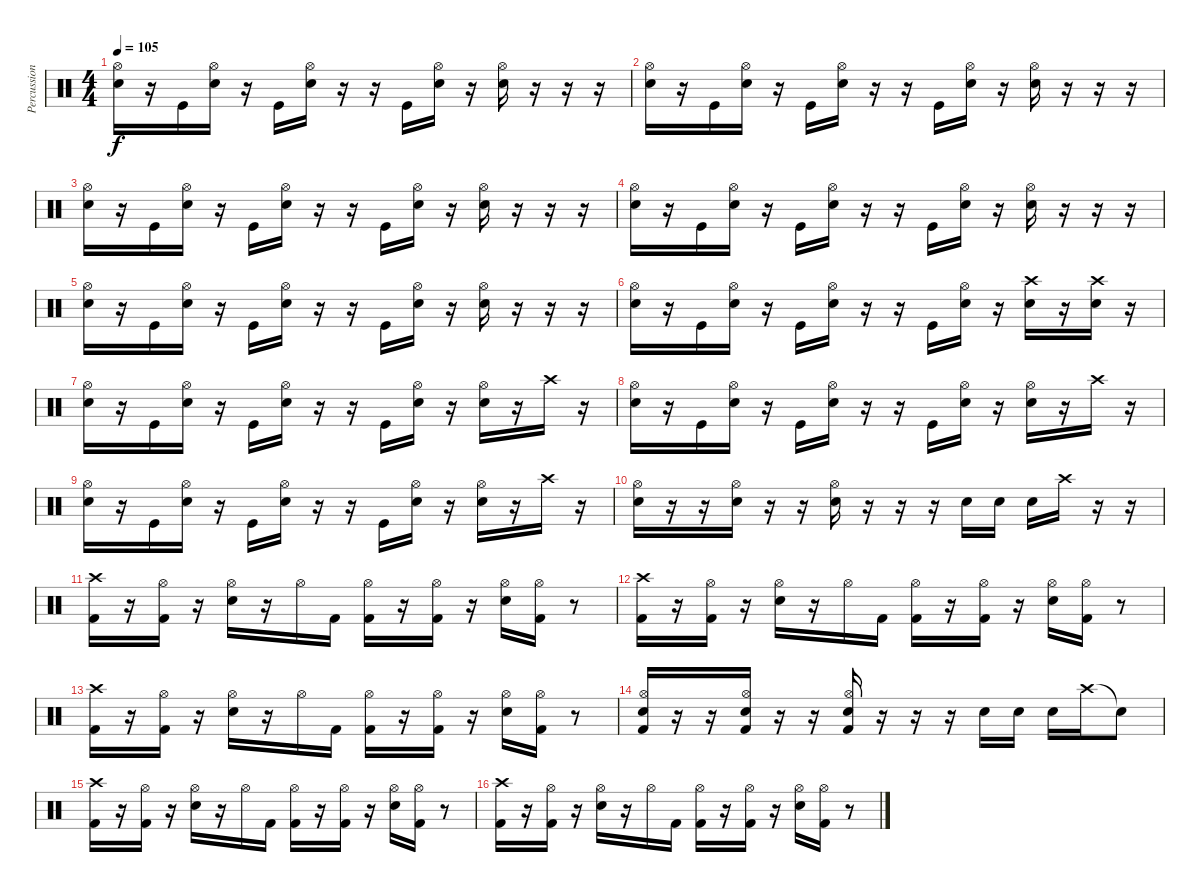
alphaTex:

\track ("Percussions" "Percussion") {instrument percussion}
\staff {score}
\articulation defaults
\ts (4 4)
\tempo 105
\clef neutral
\ks c
("Snare (hit) 2" "Hi-Hat (open)").16{dy f} r.16 "Kick (hit)".16 ("Snare (hit) 2" "Hi-Hat (open)").16 r.16 "Kick (hit)".16 ("Snare (hit) 2" "Hi-Hat (open)").16 r.16 r.16 "Kick (hit)".16 ("Snare (hit) 2" "Hi-Hat (open)").16 r.16 ("Snare (hit) 2" "Hi-Hat (open)").16 r.16 r.16 r.16 |
("Snare (hit) 2" "Hi-Hat (open)").16 r.16 "Kick (hit)".16 ("Snare (hit) 2" "Hi-Hat (open)").16 r.16 "Kick (hit)".16 ("Snare (hit) 2" "Hi-Hat (open)").16 r.16 r.16 "Kick (hit)".16 ("Snare (hit) 2" "Hi-Hat (open)").16 r.16 ("Snare (hit) 2" "Hi-Hat (open)").16 r.16 r.16 r.16 |
("Snare (hit) 2" "Hi-Hat (open)").16 r.16 "Kick (hit)".16 ("Snare (hit) 2" "Hi-Hat (open)").16 r.16 "Kick (hit)".16 ("Snare (hit) 2" "Hi-Hat (open)").16 r.16 r.16 "Kick (hit)".16 ("Snare (hit) 2" "Hi-Hat (open)").16 r.16 ("Snare (hit) 2" "Hi-Hat (open)").16 r.16 r.16 r.16 |
("Snare (hit) 2" "Hi-Hat (open)").16 r.16 "Kick (hit)".16 ("Snare (hit) 2" "Hi-Hat (open)").16 r.16 "Kick (hit)".16 ("Snare (hit) 2" "Hi-Hat (open)").16 r.16 r.16 "Kick (hit)".16 ("Snare (hit) 2" "Hi-Hat (open)").16 r.16 ("Snare (hit) 2" "Hi-Hat (open)").16 r.16 r.16 r.16 |
("Snare (hit) 2" "Hi-Hat (open)").16 r.16 "Kick (hit)".16 ("Snare (hit) 2" "Hi-Hat (open)").16 r.16 "Kick (hit)".16 ("Snare (hit) 2" "Hi-Hat (open)").16 r.16 r.16 "Kick (hit)".16 ("Snare (hit) 2" "Hi-Hat (open)").16 r.16 ("Snare (hit) 2" "Hi-Hat (open)").16 r.16 r.16 r.16 |
("Snare (hit) 2" "Hi-Hat (open)").16 r.16 "Kick (hit)".16 ("Snare (hit) 2" "Hi-Hat (open)").16 r.16 "Kick (hit)".16 ("Snare (hit) 2" "Hi-Hat (open)").16 r.16 r.16 "Kick (hit)".16 ("Snare (hit) 2" "Hi-Hat (open)").16 r.16 ("Snare (hit) 2" "Crash high (hit)").16 r.16 ("Snare (hit) 2" "Crash high (hit)").16 r.16 |
("Snare (hit) 2" "Hi-Hat (open)").16 r.16 "Kick (hit)".16 ("Snare (hit) 2" "Hi-Hat (open)").16 r.16 "Kick (hit)".16 ("Snare (hit) 2" "Hi-Hat (open)").16 r.16 r.16 "Kick (hit)".16 ("Snare (hit) 2" "Hi-Hat (open)").16 r.16 ("Snare (hit) 2" "Hi-Hat (open)").16 r.16 "Crash high (hit)".16 r.16 |
("Snare (hit) 2" "Hi-Hat (open)").16 r.16 "Kick (hit)".16 ("Snare (hit) 2" "Hi-Hat (open)").16 r.16 "Kick (hit)".16 ("Snare (hit) 2" "Hi-Hat (open)").16 r.16 r.16 "Kick (hit)".16 ("Snare (hit) 2" "Hi-Hat (open)").16 r.16 ("Snare (hit) 2" "Hi-Hat (open)").16 r.16 "Crash high (hit)".16 r.16 |
("Snare (hit) 2" "Hi-Hat (open)").16 r.16 "Kick (hit)".16 ("Snare (hit) 2" "Hi-Hat (open)").16 r.16 "Kick (hit)".16 ("Snare (hit) 2" "Hi-Hat (open)").16 r.16 r.16 "Kick (hit)".16 ("Snare (hit) 2" "Hi-Hat (open)").16 r.16 ("Snare (hit) 2" "Hi-Hat (open)").16 r.16 "Crash high (hit)".16 r.16 |
("Snare (hit) 2" "Hi-Hat (open)").16 r.16 r.16 ("Snare (hit) 2" "Hi-Hat (open)").16 r.16 r.16 ("Snare (hit) 2" "Hi-Hat (open)").16 r.16 r.16 r.16 "Snare (hit) 2".16 "Snare (hit) 2".16 "Snare (hit) 2".16 "Crash high (hit)".16 r.16 r.16 |
("Crash high (hit)" "Kick (hit) 2").16 r.16 ("Hi-Hat (open)" "Kick (hit) 2").16 r.16 ("Hi-Hat (open)" "Snare (hit) 2").16 r.16 "Hi-Hat (open)".16 "Kick (hit) 2".16 ("Kick (hit) 2" "Hi-Hat (open)").16 r.16 ("Kick (hit) 2" "Hi-Hat (open)").16 r.16 ("Hi-Hat (open)" "Snare (hit) 2").16 ("Kick (hit) 2" "Hi-Hat (open)").16 r.8 |
("Crash high (hit)" "Kick (hit) 2").16 r.16 ("Hi-Hat (open)" "Kick (hit) 2").16 r.16 ("Hi-Hat (open)" "Snare (hit) 2").16 r.16 "Hi-Hat (open)".16 "Kick (hit) 2".16 ("Kick (hit) 2" "Hi-Hat (open)").16 r.16 ("Kick (hit) 2" "Hi-Hat (open)").16 r.16 ("Hi-Hat (open)" "Snare (hit) 2").16 ("Kick (hit) 2" "Hi-Hat (open)").16 r.8 |
("Crash high (hit)" "Kick (hit) 2").16 r.16 ("Hi-Hat (open)" "Kick (hit) 2").16 r.16 ("Hi-Hat (open)" "Snare (hit) 2").16 r.16 "Hi-Hat (open)".16 "Kick (hit) 2".16 ("Kick (hit) 2" "Hi-Hat (open)").16 r.16 ("Kick (hit) 2" "Hi-Hat (open)").16 r.16 ("Hi-Hat (open)" "Snare (hit) 2").16 ("Kick (hit) 2" "Hi-Hat (open)").16 r.8 |
("Kick (hit) 2" "Snare (hit) 2" "Hi-Hat (open)").16 r.16 r.16 ("Kick (hit) 2" "Snare (hit) 2" "Hi-Hat (open)").16 r.16 r.16 ("Kick (hit) 2" "Snare (hit) 2" "Hi-Hat (open)").16 r.16 r.16 r.16 "Snare (hit) 2".16 "Snare (hit) 2".16 "Snare (hit) 2".16 "Crash high (hit)".16 "Snare (hit)"{t}.8 |
("Crash high (hit)" "Kick (hit) 2").16 r.16 ("Hi-Hat (open)" "Kick (hit) 2").16 r.16 ("Hi-Hat (open)" "Snare (hit) 2").16 r.16 "Hi-Hat (open)".16 "Kick (hit) 2".16 ("Kick (hit) 2" "Hi-Hat (open)").16 r.16 ("Kick (hit) 2" "Hi-Hat (open)").16 r.16 ("Hi-Hat (open)" "Snare (hit) 2").16 ("Kick (hit) 2" "Hi-Hat (open)").16 r.8 |
("Crash high (hit)" "Kick (hit) 2").16 r.16 ("Hi-Hat (open)" "Kick (hit) 2").16 r.16 ("Hi-Hat (open)" "Snare (hit) 2").16 r.16 "Hi-Hat (open)".16 "Kick (hit) 2".16 ("Kick (hit) 2" "Hi-Hat (open)").16 r.16 ("Kick (hit) 2" "Hi-Hat (open)").16 r.16 ("Hi-Hat (open)" "Snare (hit) 2").16 ("Kick (hit) 2" "Hi-Hat (open)").16 r.8
